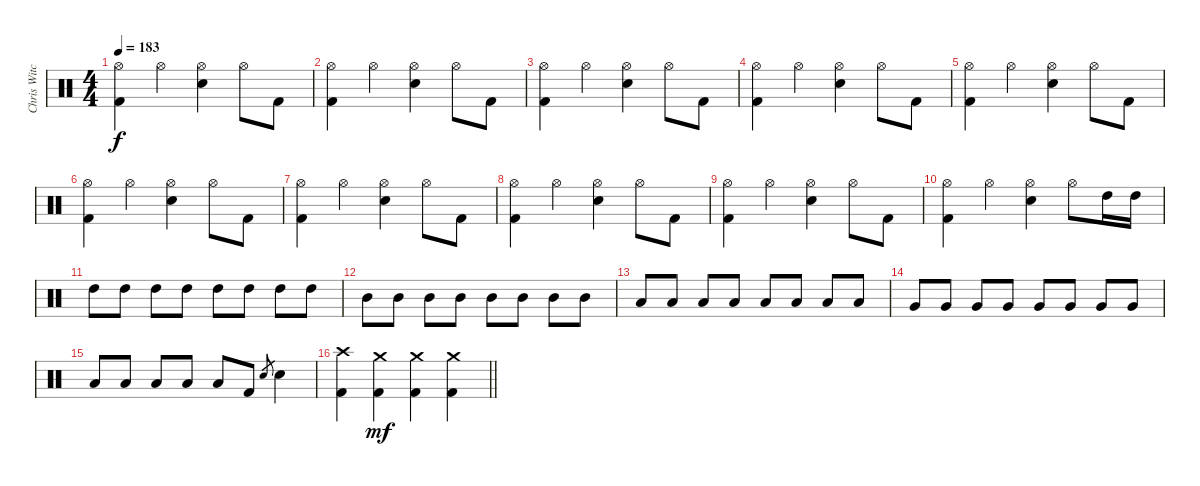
\track ("Chris Witchunter" "Chris Witc") {instrument percussion}
\staff {score}
\articulation defaults
\ts (4 4)
\tempo 183
\clef neutral
\ks c
("Hi-Hat (open)" "Kick (hit) 2").4{dy f} "Hi-Hat (open)".4 ("Hi-Hat (open)" "Snare (hit) 2").4 "Hi-Hat (open)".8 "Kick (hit) 2".8 |
("Hi-Hat (open)" "Kick (hit) 2").4 "Hi-Hat (open)".4 ("Hi-Hat (open)" "Snare (hit) 2").4 "Hi-Hat (open)".8 "Kick (hit) 2".8 |
("Hi-Hat (open)" "Kick (hit) 2").4 "Hi-Hat (open)".4 ("Hi-Hat (open)" "Snare (hit) 2").4 "Hi-Hat (open)".8 "Kick (hit) 2".8 |
("Hi-Hat (open)" "Kick (hit) 2").4 "Hi-Hat (open)".4 ("Hi-Hat (open)" "Snare (hit) 2").4 "Hi-Hat (open)".8 "Kick (hit) 2".8 |
("Hi-Hat (open)" "Kick (hit) 2").4 "Hi-Hat (open)".4 ("Hi-Hat (open)" "Snare (hit) 2").4 "Hi-Hat (open)".8 "Kick (hit) 2".8 |
("Hi-Hat (open)" "Kick (hit) 2").4 "Hi-Hat (open)".4 ("Hi-Hat (open)" "Snare (hit) 2").4 "Hi-Hat (open)".8 "Kick (hit) 2".8 |
("Hi-Hat (open)" "Kick (hit) 2").4 "Hi-Hat (open)".4 ("Hi-Hat (open)" "Snare (hit) 2").4 "Hi-Hat (open)".8 "Kick (hit) 2".8 |
("Hi-Hat (open)" "Kick (hit) 2").4 "Hi-Hat (open)".4 ("Hi-Hat (open)" "Snare (hit) 2").4 "Hi-Hat (open)".8 "Kick (hit) 2".8 |
("Hi-Hat (open)" "Kick (hit) 2").4 "Hi-Hat (open)".4 ("Hi-Hat (open)" "Snare (hit) 2").4 "Hi-Hat (open)".8 "Kick (hit) 2".8 |
("Hi-Hat (open)" "Kick (hit) 2").4 "Hi-Hat (open)".4 ("Hi-Hat (open)" "Snare (hit) 2").4 "Hi-Hat (open)".8 "High Tom (hit)".16 "High Tom (hit)".16 |
"High Tom (hit)".8 "High Tom (hit)".8 "High Tom (hit)".8 "High Tom (hit)".8 "High Tom (hit)".8 "High Tom (hit)".8 "High Tom (hit)".8 "High Tom (hit)".8 |
"Mid Tom (hit)".8 "Mid Tom (hit)".8 "Mid Tom (hit)".8 "Mid Tom (hit)".8 "Mid Tom (hit)".8 "Mid Tom (hit)".8 "Mid Tom (hit)".8 "Mid Tom (hit)".8 |
"Low Tom (hit)".8 "Low Tom (hit)".8 "Low Tom (hit)".8 "Low Tom (hit)".8 "Low Tom (hit)".8 "Low Tom (hit)".8 "Low Tom (hit)".8 "Low Tom (hit)".8 |
"Very Low Tom (hit)".8 "Very Low Tom (hit)".8 "Very Low Tom (hit)".8 "Very Low Tom (hit)".8 "Very Low Tom (hit)".8 "Very Low Tom (hit)".8 "Very Low Tom (hit)".8 "Very Low Tom (hit)".8 |
"Low Floor Tom (hit)".8 "Low Floor Tom (hit)".8 "Low Floor Tom (hit)".8 "Low Floor Tom (hit)".8 "Low Floor Tom (hit)".8 "Kick (hit) 2".8 "Snare (hit) 2".8{gr} "Snare (hit) 2".4 |
\barLineRight lightlight
("Crash high (hit)" "Kick (hit) 2").4 ("Crash medium (hit)" "Kick (hit) 2").4{dy mf} ("Crash medium (hit)" "Kick (hit) 2").4 ("Crash medium (hit)" "Kick (hit) 2").4
